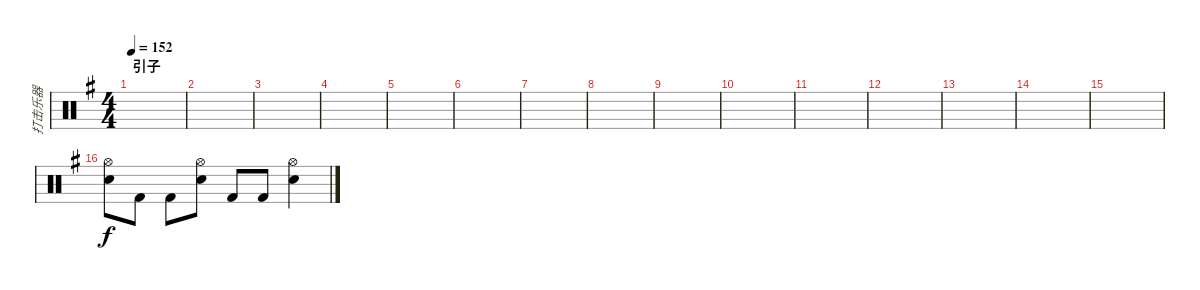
\track ("打击乐器" "打击乐器") {instrument percussion}
\staff {score}
\articulation defaults
\ts (4 4)
\section ("" "引子")
\tempo 152
\clef neutral
\ks g
|
|
|
|
|
|
|
|
|
|
|
|
|
|
|
("Hi-Hat (open)" "Metronome (bell)").8 "Kick (hit) 2".8 "Kick (hit) 2".8 ("Hi-Hat (open)" "Metronome (bell)").8 "Kick (hit) 2".8 "Kick (hit) 2".8 ("Hi-Hat (open)" "Metronome (bell)").4
